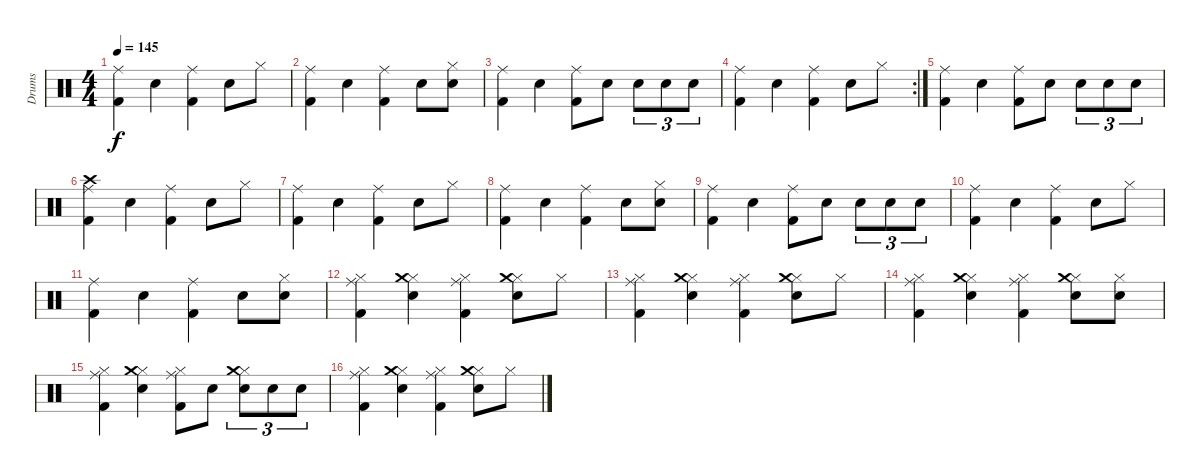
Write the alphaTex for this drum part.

\track ("Drums" "Drums") {instrument percussion}
\staff {score}
\articulation defaults
\ts (4 4)
\tempo 145
\clef neutral
\ks c
("Ride (middle)" "Kick (hit) 2").4{dy f} "Electric Snare (hit)".4 ("Ride (middle)" "Kick (hit) 2").4 "Electric Snare (hit)".8 "Hi-Hat (closed)".8 |
("Ride (middle)" "Kick (hit) 2").4 "Electric Snare (hit)".4 ("Ride (middle)" "Kick (hit) 2").4 "Electric Snare (hit)".8 ("Hi-Hat (closed)" "Electric Snare (hit)").8 |
("Ride (middle)" "Kick (hit) 2").4 "Electric Snare (hit)".4 ("Ride (middle)" "Kick (hit) 2").8 "Electric Snare (hit)".8 "Electric Snare (hit)".8{tu (3 2)} "Electric Snare (hit)".8{tu (3 2)} "Electric Snare (hit)".8{tu (3 2)} |
\rc 2
("Ride (middle)" "Kick (hit) 2").4 "Electric Snare (hit)".4 ("Ride (middle)" "Kick (hit) 2").4 "Electric Snare (hit)".8 "Hi-Hat (closed)".8 |
("Ride (middle)" "Kick (hit) 2").4 "Electric Snare (hit)".4 ("Ride (middle)" "Kick (hit) 2").8 "Electric Snare (hit)".8 "Electric Snare (hit)".8{tu (3 2)} "Electric Snare (hit)".8{tu (3 2)} "Electric Snare (hit)".8{tu (3 2)} |
("Ride (middle)" "Crash high (hit)" "Kick (hit) 2").4 "Electric Snare (hit)".4 ("Ride (middle)" "Kick (hit) 2").4 "Electric Snare (hit)".8 "Hi-Hat (closed)".8 |
("Ride (middle)" "Kick (hit) 2").4 "Electric Snare (hit)".4 ("Ride (middle)" "Kick (hit) 2").4 "Electric Snare (hit)".8 "Hi-Hat (closed)".8 |
("Ride (middle)" "Kick (hit) 2").4 "Electric Snare (hit)".4 ("Ride (middle)" "Kick (hit) 2").4 "Electric Snare (hit)".8 ("Hi-Hat (closed)" "Electric Snare (hit)").8 |
("Ride (middle)" "Kick (hit) 2").4 "Electric Snare (hit)".4 ("Ride (middle)" "Kick (hit) 2").8 "Electric Snare (hit)".8 "Electric Snare (hit)".8{tu (3 2)} "Electric Snare (hit)".8{tu (3 2)} "Electric Snare (hit)".8{tu (3 2)} |
("Ride (middle)" "Kick (hit) 2").4 "Electric Snare (hit)".4 ("Ride (middle)" "Kick (hit) 2").4 "Electric Snare (hit)".8 "Hi-Hat (closed)".8 |
("Ride (middle)" "Kick (hit) 2").4 "Electric Snare (hit)".4 ("Ride (middle)" "Kick (hit) 2").4 "Electric Snare (hit)".8 ("Hi-Hat (closed)" "Electric Snare (hit)").8 |
("Hi-Hat (closed)" "Ride (middle)" "Kick (hit) 2").4 ("Hi-Hat (closed)" "Electric Snare (hit)" "Crash medium (hit)").4 ("Hi-Hat (closed)" "Ride (middle)" "Kick (hit) 2").4 ("Hi-Hat (closed)" "Electric Snare (hit)" "Crash medium (hit)").8 "Hi-Hat (closed)".8 |
("Hi-Hat (closed)" "Ride (middle)" "Kick (hit) 2").4 ("Hi-Hat (closed)" "Electric Snare (hit)" "Crash medium (hit)").4 ("Hi-Hat (closed)" "Ride (middle)" "Kick (hit) 2").4 ("Hi-Hat (closed)" "Electric Snare (hit)" "Crash medium (hit)").8 "Hi-Hat (closed)".8 |
("Hi-Hat (closed)" "Ride (middle)" "Kick (hit) 2").4 ("Hi-Hat (closed)" "Electric Snare (hit)" "Crash medium (hit)").4 ("Hi-Hat (closed)" "Ride (middle)" "Kick (hit) 2").4 ("Hi-Hat (closed)" "Electric Snare (hit)" "Crash medium (hit)").8 ("Hi-Hat (closed)" "Electric Snare (hit)").8 |
("Hi-Hat (closed)" "Ride (middle)" "Kick (hit) 2").4 ("Hi-Hat (closed)" "Electric Snare (hit)" "Crash medium (hit)").4 ("Hi-Hat (closed)" "Ride (middle)" "Kick (hit) 2").8 "Electric Snare (hit)".8 ("Hi-Hat (closed)" "Electric Snare (hit)" "Crash medium (hit)").8{tu (3 2)} "Electric Snare (hit)".8{tu (3 2)} "Electric Snare (hit)".8{tu (3 2)} |
("Hi-Hat (closed)" "Ride (middle)" "Kick (hit) 2").4 ("Hi-Hat (closed)" "Electric Snare (hit)" "Crash medium (hit)").4 ("Hi-Hat (closed)" "Ride (middle)" "Kick (hit) 2").4 ("Hi-Hat (closed)" "Electric Snare (hit)" "Crash medium (hit)").8 "Hi-Hat (closed)".8
